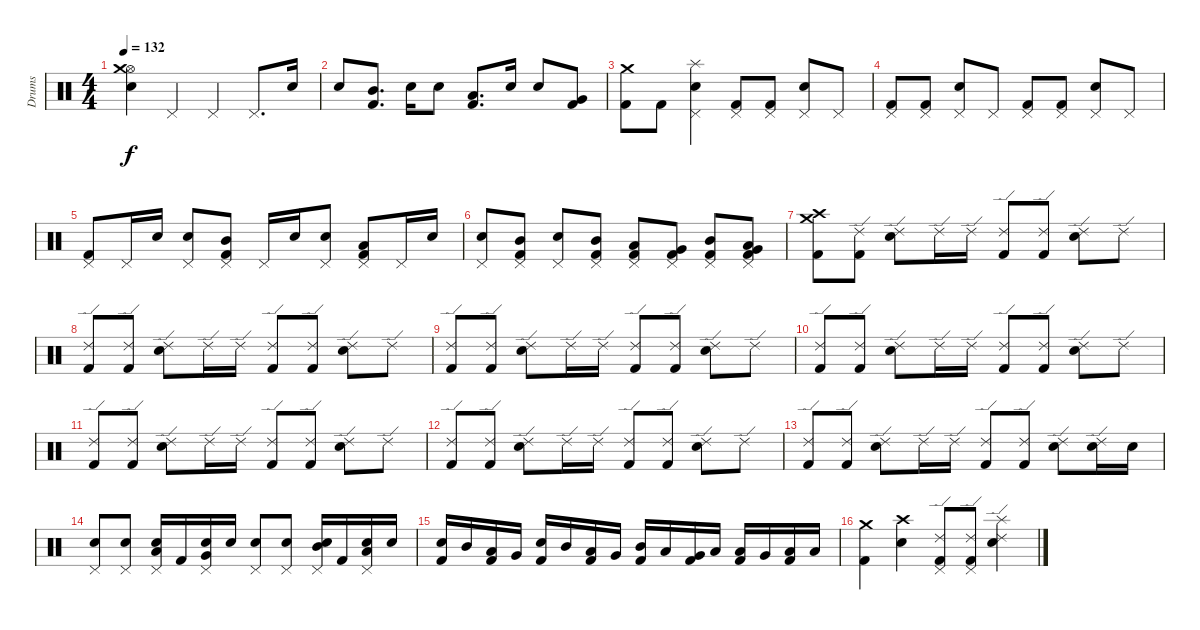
\track ("Drums" "Drums") {instrument percussion}
\staff {score}
\articulation defaults
\ts (4 4)
\tempo 132
\clef neutral
\ks c
("Snare (hit) 2" "Hi-Hat (open)" "Crash medium (hit)").4{dy f} "Pedal Hi-Hat (hit)".4 "Pedal Hi-Hat (hit)".4 "Pedal Hi-Hat (hit)".8{d} "Snare (hit) 2".16 |
"Snare (hit) 2".8 ("Mid Tom (hit)" "Kick (hit) 2").8{d} "Snare (hit) 2".16 "Snare (hit) 2".8 ("Low Tom (hit)" "Kick (hit) 2").8{d} "Snare (hit) 2".16 "Snare (hit) 2".8 ("Very Low Tom (hit)" "Kick (hit) 2").8 |
("Crash medium (hit)" "Kick (hit) 2").8 "Kick (hit) 2".8 ("Pedal Hi-Hat (hit)" "Splash (hit)" "Snare (hit) 2").4 ("Pedal Hi-Hat (hit)" "Kick (hit) 2").8 ("Kick (hit) 2" "Pedal Hi-Hat (hit)").8 ("Pedal Hi-Hat (hit)" "Snare (hit) 2").8 "Pedal Hi-Hat (hit)".8 |
("Kick (hit) 2" "Pedal Hi-Hat (hit)").8 ("Kick (hit) 2" "Pedal Hi-Hat (hit)").8 ("Snare (hit) 2" "Pedal Hi-Hat (hit)").8 "Pedal Hi-Hat (hit)".8 ("Kick (hit) 2" "Pedal Hi-Hat (hit)").8 ("Kick (hit) 2" "Pedal Hi-Hat (hit)").8 ("Snare (hit) 2" "Pedal Hi-Hat (hit)").8 "Pedal Hi-Hat (hit)".8 |
("Pedal Hi-Hat (hit)" "Kick (hit) 2").8 "Pedal Hi-Hat (hit)".16 "Snare (hit) 2".16 ("Pedal Hi-Hat (hit)" "Snare (hit) 2").8 ("Mid Tom (hit)" "Pedal Hi-Hat (hit)" "Kick (hit) 2").8 "Pedal Hi-Hat (hit)".16 "Snare (hit) 2".16 ("Pedal Hi-Hat (hit)" "Snare (hit) 2").8 ("Low Tom (hit)" "Pedal Hi-Hat (hit)" "Kick (hit) 2").8 "Pedal Hi-Hat (hit)".16 "Snare (hit) 2".16 |
("Pedal Hi-Hat (hit)" "Snare (hit) 2").8 ("Pedal Hi-Hat (hit)" "Kick (hit) 2" "Mid Tom (hit)").8 ("Pedal Hi-Hat (hit)" "Snare (hit) 2").8 ("Pedal Hi-Hat (hit)" "Mid Tom (hit)" "Kick (hit) 2").8 ("Pedal Hi-Hat (hit)" "Kick (hit) 2" "Low Tom (hit)").8 ("Pedal Hi-Hat (hit)" "Kick (hit) 2" "Very Low Tom (hit)").8 ("Pedal Hi-Hat (hit)" "Kick (hit) 2" "Mid Tom (hit)").8 ("Pedal Hi-Hat (hit)" "Kick (hit) 2" "Very Low Tom (hit)" "Low Floor Tom (hit)").8 |
("Crash high (hit)" "Crash medium (hit)" "Kick (hit) 2").8 ("Ride (edge) 2" "Kick (hit) 2").8 ("Ride (edge) 2" "Snare (hit) 2").8 "Ride (edge) 2".16 "Ride (edge) 2".16 ("Ride (edge) 2" "Kick (hit) 2").8 ("Ride (edge) 2" "Kick (hit) 2").8 ("Ride (edge) 2" "Snare (hit) 2").8 "Ride (edge) 2".8 |
("Ride (edge) 2" "Kick (hit) 2").8 ("Ride (edge) 2" "Kick (hit) 2").8 ("Ride (edge) 2" "Snare (hit) 2").8 "Ride (edge) 2".16 "Ride (edge) 2".16 ("Ride (edge) 2" "Kick (hit) 2").8 ("Ride (edge) 2" "Kick (hit) 2").8 ("Ride (edge) 2" "Snare (hit) 2").8 "Ride (edge) 2".8 |
("Ride (edge) 2" "Kick (hit) 2").8 ("Ride (edge) 2" "Kick (hit) 2").8 ("Ride (edge) 2" "Snare (hit) 2").8 "Ride (edge) 2".16 "Ride (edge) 2".16 ("Ride (edge) 2" "Kick (hit) 2").8 ("Ride (edge) 2" "Kick (hit) 2").8 ("Ride (edge) 2" "Snare (hit) 2").8 "Ride (edge) 2".8 |
("Ride (edge) 2" "Kick (hit) 2").8 ("Ride (edge) 2" "Kick (hit) 2").8 ("Ride (edge) 2" "Snare (hit) 2").8 "Ride (edge) 2".16 "Ride (edge) 2".16 ("Ride (edge) 2" "Kick (hit) 2").8 ("Ride (edge) 2" "Kick (hit) 2").8 ("Ride (edge) 2" "Snare (hit) 2").8 "Ride (edge) 2".8 |
("Ride (edge) 2" "Kick (hit) 2").8 ("Ride (edge) 2" "Kick (hit) 2").8 ("Ride (edge) 2" "Snare (hit) 2").8 "Ride (edge) 2".16 "Ride (edge) 2".16 ("Ride (edge) 2" "Kick (hit) 2").8 ("Ride (edge) 2" "Kick (hit) 2").8 ("Ride (edge) 2" "Snare (hit) 2").8 "Ride (edge) 2".8 |
("Ride (edge) 2" "Kick (hit) 2").8 ("Ride (edge) 2" "Kick (hit) 2").8 ("Ride (edge) 2" "Snare (hit) 2").8 "Ride (edge) 2".16 "Ride (edge) 2".16 ("Ride (edge) 2" "Kick (hit) 2").8 ("Ride (edge) 2" "Kick (hit) 2").8 ("Ride (edge) 2" "Snare (hit) 2").8 "Ride (edge) 2".8 |
("Ride (edge) 2" "Kick (hit) 2").8 ("Ride (edge) 2" "Kick (hit) 2").8 ("Ride (edge) 2" "Snare (hit) 2").8 "Ride (edge) 2".16 "Ride (edge) 2".16 ("Ride (edge) 2" "Kick (hit) 2").8 ("Ride (edge) 2" "Kick (hit) 2").8 ("Ride (edge) 2" "Snare (hit) 2").8 ("Ride (edge) 2" "Snare (hit) 2").16 "Snare (hit) 2".16 |
("Pedal Hi-Hat (hit)" "Snare (hit) 2").8 ("Pedal Hi-Hat (hit)" "Snare (hit) 2").8 ("Pedal Hi-Hat (hit)" "Low Tom (hit)" "Snare (hit) 2").16 "Kick (hit) 2".16 ("Pedal Hi-Hat (hit)" "Very Low Tom (hit)" "Snare (hit) 2").16 "Snare (hit) 2".16 ("Pedal Hi-Hat (hit)" "Snare (hit) 2").8 ("Pedal Hi-Hat (hit)" "Snare (hit) 2").8 ("Pedal Hi-Hat (hit)" "Mid Tom (hit)" "Snare (hit) 2").16 "Kick (hit) 2".16 ("Pedal Hi-Hat (hit)" "Low Tom (hit)" "Snare (hit) 2").16 "Snare (hit) 2".16 |
("Kick (hit) 2" "Snare (hit) 2").16 "Mid Tom (hit)".16 ("Kick (hit) 2" "Low Tom (hit)").16 "Very Low Tom (hit)".16 ("Kick (hit) 2" "Snare (hit) 2").16 "Mid Tom (hit)".16 ("Kick (hit) 2" "Low Tom (hit)").16 "Very Low Tom (hit)".16 ("Kick (hit) 2" "Mid Tom (hit)").16 "Low Tom (hit)".16 ("Kick (hit) 2" "Very Low Tom (hit)").16 "Low Floor Tom (hit)".16 ("Kick (hit) 2" "Low Tom (hit)").16 "Very Low Tom (hit)".16 ("Kick (hit) 2" "Low Floor Tom (hit)").16 "Low Floor Tom (hit)".16 |
("Kick (hit) 2" "Crash medium (hit)").4 ("Snare (hit) 2" "Crash high (hit)").4 ("Ride (edge) 2" "Pedal Hi-Hat (hit)" "Kick (hit) 2").8 ("Ride (edge) 2" "Pedal Hi-Hat (hit)" "Kick (hit) 2").8 ("Splash (hit)" "Ride (edge) 2" "Snare (hit) 2").4
